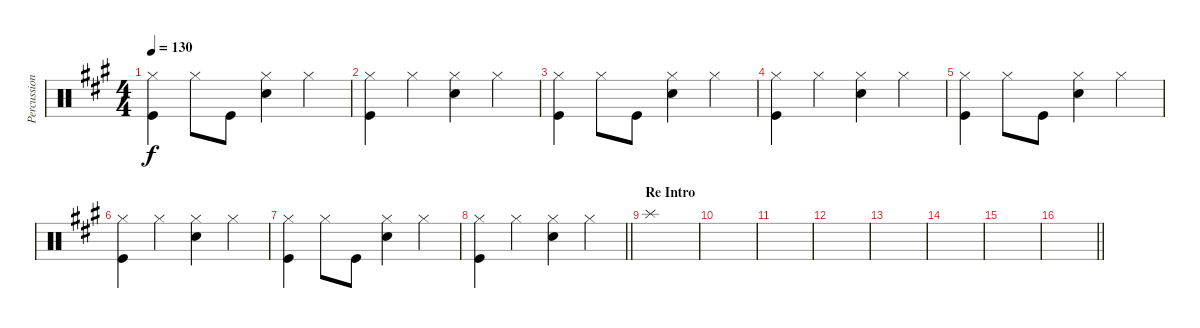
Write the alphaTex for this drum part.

\track ("Percussion" "Percussion") {instrument percussion}
\staff {score}
\articulation defaults
\ts (4 4)
\tempo 130
\clef neutral
\ks a
("Hi-Hat (closed)" "Kick (hit)").4{dy f} "Hi-Hat (closed)".8 "Kick (hit)".8 ("Hi-Hat (closed)" "Snare (hit) 2").4 "Hi-Hat (closed)".4 |
("Hi-Hat (closed)" "Kick (hit)").4 "Hi-Hat (closed)".4 ("Hi-Hat (closed)" "Snare (hit) 2").4 "Hi-Hat (closed)".4 |
("Hi-Hat (closed)" "Kick (hit)").4 "Hi-Hat (closed)".8 "Kick (hit)".8 ("Hi-Hat (closed)" "Snare (hit) 2").4 "Hi-Hat (closed)".4 |
("Hi-Hat (closed)" "Kick (hit)").4 "Hi-Hat (closed)".4 ("Hi-Hat (closed)" "Snare (hit) 2").4 "Hi-Hat (closed)".4 |
("Hi-Hat (closed)" "Kick (hit)").4 "Hi-Hat (closed)".8 "Kick (hit)".8 ("Hi-Hat (closed)" "Snare (hit) 2").4 "Hi-Hat (closed)".4 |
("Hi-Hat (closed)" "Kick (hit)").4 "Hi-Hat (closed)".4 ("Hi-Hat (closed)" "Snare (hit) 2").4 "Hi-Hat (closed)".4 |
("Hi-Hat (closed)" "Kick (hit)").4 "Hi-Hat (closed)".8 "Kick (hit)".8 ("Hi-Hat (closed)" "Snare (hit) 2").4 "Hi-Hat (closed)".4 |
\barLineRight lightlight
("Hi-Hat (closed)" "Kick (hit)").4 "Hi-Hat (closed)".4 ("Hi-Hat (closed)" "Snare (hit) 2").4 "Hi-Hat (closed)".4 |
\section ("" "Re Intro")
"Splash (hit)".1 |
|
|
|
|
|
|
\barLineRight lightlight
